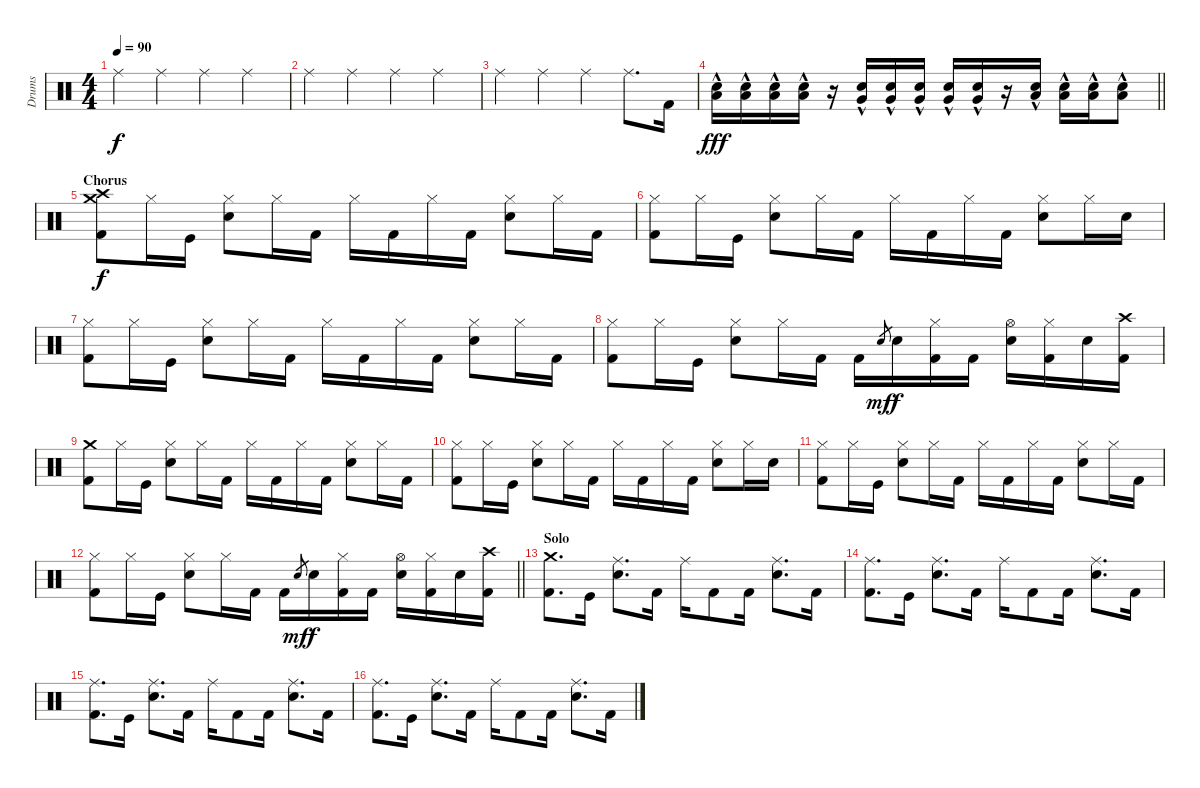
\track ("Drums" "Drums") {instrument percussion}
\staff {score}
\articulation defaults
\ts (4 4)
\tempo 90
\clef neutral
\ks c "Ride (middle)".4{dy f} "Ride (middle)".4 "Ride (middle)".4 "Ride (middle)".4
|
"Ride (middle)".4 "Ride (middle)".4 "Ride (middle)".4 "Ride (middle)".4 |
"Ride (middle)".4 "Ride (middle)".4 "Ride (middle)".4 "Ride (middle)".8{d} "Kick (hit) 2".16 |
\barLineRight lightlight
("Low Tom (hit)"{hac} "Snare (hit) 2").16{dy fff} ("Low Tom (hit)"{hac} "Snare (hit) 2").16 ("Low Tom (hit)"{hac} "Snare (hit) 2").16 ("Low Tom (hit)"{hac} "Snare (hit) 2").16 r.16 ("Very Low Tom (hit)"{hac} "Snare (hit) 2").16 ("Very Low Tom (hit)"{hac} "Snare (hit) 2").16 ("Very Low Tom (hit)"{hac} "Snare (hit) 2").16 ("Very Low Tom (hit)"{hac} "Snare (hit) 2").16 ("Very Low Tom (hit)"{hac} "Snare (hit) 2").16 r.16 ("Low Floor Tom (hit)"{hac} "Snare (hit) 2").16 ("Low Floor Tom (hit)"{hac} "Snare (hit) 2").16 ("Low Floor Tom (hit)"{hac} "Snare (hit) 2").16 ("Low Floor Tom (hit)"{hac} "Snare (hit) 2").8 |
\section ("" "Chorus")
("Crash medium (hit)" "Crash high (hit)" "Kick (hit) 2").8{dy f} "Hi-Hat (closed)".16 "Kick (hit)".16 ("Hi-Hat (closed)" "Snare (hit) 2").8 "Hi-Hat (closed)".16 "Kick (hit) 2".16 "Hi-Hat (closed)".16 "Kick (hit) 2".16 "Hi-Hat (closed)".16 "Kick (hit) 2".16 ("Hi-Hat (closed)" "Snare (hit) 2").8 "Hi-Hat (closed)".16 "Kick (hit) 2".16 |
("Hi-Hat (closed)" "Kick (hit) 2").8 "Hi-Hat (closed)".16 "Kick (hit)".16 ("Hi-Hat (closed)" "Snare (hit) 2").8 "Hi-Hat (closed)".16 "Kick (hit) 2".16 "Hi-Hat (closed)".16 "Kick (hit) 2".16 "Hi-Hat (closed)".16 "Kick (hit) 2".16 ("Hi-Hat (closed)" "Snare (hit) 2").8 "Hi-Hat (closed)".16 "Snare (hit) 2".16 |
("Hi-Hat (closed)" "Kick (hit) 2").8 "Hi-Hat (closed)".16 "Kick (hit)".16 ("Hi-Hat (closed)" "Snare (hit) 2").8 "Hi-Hat (closed)".16 "Kick (hit) 2".16 "Hi-Hat (closed)".16 "Kick (hit) 2".16 "Hi-Hat (closed)".16 "Kick (hit) 2".16 ("Hi-Hat (closed)" "Snare (hit) 2").8 "Hi-Hat (closed)".16 "Kick (hit) 2".16 |
("Hi-Hat (closed)" "Kick (hit) 2").8 "Hi-Hat (closed)".16 "Kick (hit)".16 ("Hi-Hat (closed)" "Snare (hit) 2").8 "Hi-Hat (closed)".16 "Kick (hit) 2".16 "Kick (hit) 2".16 "Snare (hit) 2"{h}.8{gr dy mf} "Snare (hit) 2".16{dy f} ("Hi-Hat (closed)" "Kick (hit) 2").16 "Kick (hit) 2".16 ("Hi-Hat (open)" "Snare (hit) 2").16 ("Hi-Hat (closed)" "Kick (hit) 2").16 "Snare (hit) 2".16 ("Crash high (hit)" "Kick (hit) 2").16 |
("Crash medium (hit)" "Kick (hit) 2").8 "Hi-Hat (closed)".16 "Kick (hit)".16 ("Hi-Hat (closed)" "Snare (hit) 2").8 "Hi-Hat (closed)".16 "Kick (hit) 2".16 "Hi-Hat (closed)".16 "Kick (hit) 2".16 "Hi-Hat (closed)".16 "Kick (hit) 2".16 ("Hi-Hat (closed)" "Snare (hit) 2").8 "Hi-Hat (closed)".16 "Kick (hit) 2".16 |
("Hi-Hat (closed)" "Kick (hit) 2").8 "Hi-Hat (closed)".16 "Kick (hit)".16 ("Hi-Hat (closed)" "Snare (hit) 2").8 "Hi-Hat (closed)".16 "Kick (hit) 2".16 "Hi-Hat (closed)".16 "Kick (hit) 2".16 "Hi-Hat (closed)".16 "Kick (hit) 2".16 ("Hi-Hat (closed)" "Snare (hit) 2").8 "Hi-Hat (closed)".16 "Snare (hit) 2".16 |
("Hi-Hat (closed)" "Kick (hit) 2").8 "Hi-Hat (closed)".16 "Kick (hit)".16 ("Hi-Hat (closed)" "Snare (hit) 2").8 "Hi-Hat (closed)".16 "Kick (hit) 2".16 "Hi-Hat (closed)".16 "Kick (hit) 2".16 "Hi-Hat (closed)".16 "Kick (hit) 2".16 ("Hi-Hat (closed)" "Snare (hit) 2").8 "Hi-Hat (closed)".16 "Kick (hit) 2".16 |
\barLineRight lightlight
("Hi-Hat (closed)" "Kick (hit) 2").8 "Hi-Hat (closed)".16 "Kick (hit)".16 ("Hi-Hat (closed)" "Snare (hit) 2").8 "Hi-Hat (closed)".16 "Kick (hit) 2".16 "Kick (hit) 2".16 "Snare (hit) 2"{h}.8{gr dy mf} "Snare (hit) 2".16{dy f} ("Hi-Hat (closed)" "Kick (hit) 2").16 "Kick (hit) 2".16 ("Hi-Hat (open)" "Snare (hit) 2").16 ("Hi-Hat (closed)" "Kick (hit) 2").16 "Snare (hit) 2".16 ("Crash high (hit)" "Kick (hit) 2").16 |
\section ("" "Solo")
("Crash medium (hit)" "Kick (hit) 2").8{d} "Kick (hit)".16 ("Ride (middle)" "Snare (hit) 2").8{d} "Kick (hit) 2".16 "Ride (middle)".16 "Kick (hit) 2".8 "Kick (hit) 2".16 ("Ride (middle)" "Snare (hit) 2").8{d} "Kick (hit) 2".16 |
("Ride (middle)" "Kick (hit) 2").8{d} "Kick (hit)".16 ("Ride (middle)" "Snare (hit) 2").8{d} "Kick (hit) 2".16 "Ride (middle)".16 "Kick (hit) 2".8 "Kick (hit) 2".16 ("Ride (middle)" "Snare (hit) 2").8{d} "Kick (hit) 2".16 |
("Ride (middle)" "Kick (hit) 2").8{d} "Kick (hit)".16 ("Ride (middle)" "Snare (hit) 2").8{d} "Kick (hit) 2".16 "Ride (middle)".16 "Kick (hit) 2".8 "Kick (hit) 2".16 ("Ride (middle)" "Snare (hit) 2").8{d} "Kick (hit) 2".16 |
("Ride (middle)" "Kick (hit) 2").8{d} "Kick (hit)".16 ("Ride (middle)" "Snare (hit) 2").8{d} "Kick (hit) 2".16 "Ride (middle)".16 "Kick (hit) 2".8 "Kick (hit) 2".16 ("Ride (middle)" "Snare (hit) 2").8{d} "Kick (hit) 2".16
